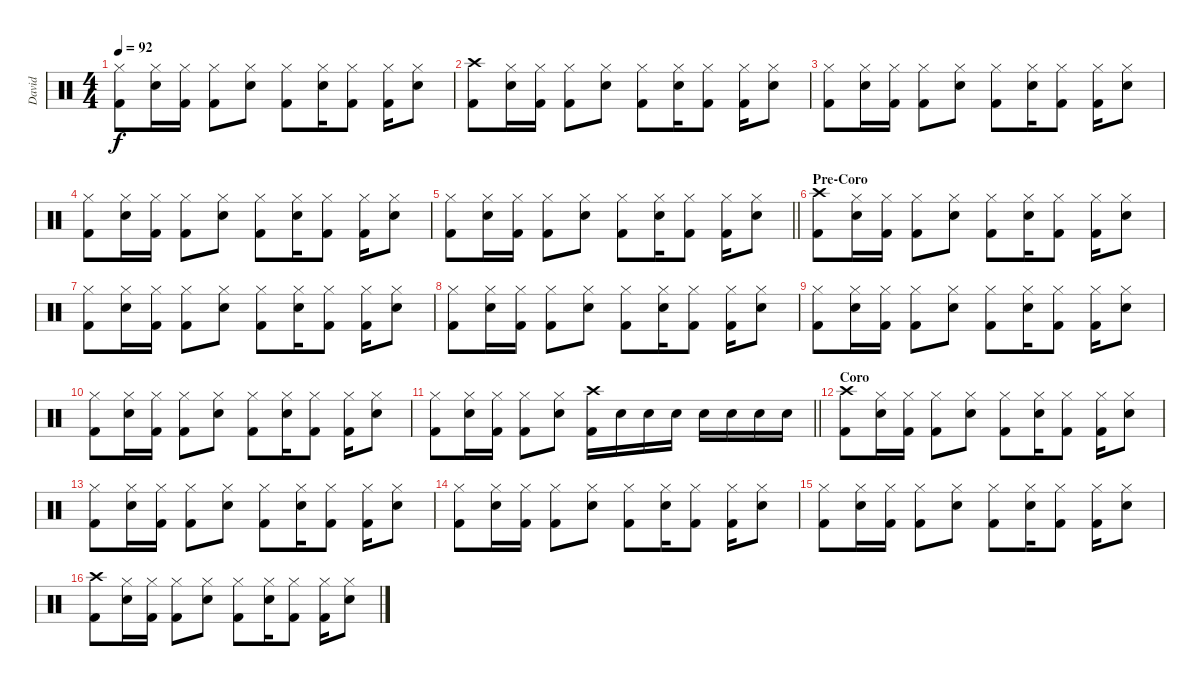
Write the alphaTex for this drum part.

\track ("David" "David") {instrument percussion}
\staff {score}
\articulation defaults
\ts (4 4)
\tempo 92
\clef neutral
\ks c
("Hi-Hat (closed)" "Kick (hit) 2").8{dy f} ("Hi-Hat (closed)" "Snare (hit) 2").16 ("Hi-Hat (closed)" "Kick (hit) 2").16 ("Hi-Hat (closed)" "Kick (hit) 2").8 ("Hi-Hat (closed)" "Snare (hit) 2").8 ("Hi-Hat (closed)" "Kick (hit) 2").8 ("Hi-Hat (closed)" "Snare (hit) 2").16 ("Hi-Hat (closed)" "Kick (hit) 2").8 ("Hi-Hat (closed)" "Kick (hit) 2").16 ("Hi-Hat (closed)" "Snare (hit) 2").8 |
("Crash high (hit)" "Kick (hit) 2").8 ("Hi-Hat (closed)" "Snare (hit) 2").16 ("Hi-Hat (closed)" "Kick (hit) 2").16 ("Hi-Hat (closed)" "Kick (hit) 2").8 ("Hi-Hat (closed)" "Snare (hit) 2").8 ("Hi-Hat (closed)" "Kick (hit) 2").8 ("Hi-Hat (closed)" "Snare (hit) 2").16 ("Hi-Hat (closed)" "Kick (hit) 2").8 ("Hi-Hat (closed)" "Kick (hit) 2").16 ("Hi-Hat (closed)" "Snare (hit) 2").8 |
("Hi-Hat (closed)" "Kick (hit) 2").8 ("Hi-Hat (closed)" "Snare (hit) 2").16 ("Hi-Hat (closed)" "Kick (hit) 2").16 ("Hi-Hat (closed)" "Kick (hit) 2").8 ("Hi-Hat (closed)" "Snare (hit) 2").8 ("Hi-Hat (closed)" "Kick (hit) 2").8 ("Hi-Hat (closed)" "Snare (hit) 2").16 ("Hi-Hat (closed)" "Kick (hit) 2").8 ("Hi-Hat (closed)" "Kick (hit) 2").16 ("Hi-Hat (closed)" "Snare (hit) 2").8 |
("Hi-Hat (closed)" "Kick (hit) 2").8 ("Hi-Hat (closed)" "Snare (hit) 2").16 ("Hi-Hat (closed)" "Kick (hit) 2").16 ("Hi-Hat (closed)" "Kick (hit) 2").8 ("Hi-Hat (closed)" "Snare (hit) 2").8 ("Hi-Hat (closed)" "Kick (hit) 2").8 ("Hi-Hat (closed)" "Snare (hit) 2").16 ("Hi-Hat (closed)" "Kick (hit) 2").8 ("Hi-Hat (closed)" "Kick (hit) 2").16 ("Hi-Hat (closed)" "Snare (hit) 2").8 |
\barLineRight lightlight
("Hi-Hat (closed)" "Kick (hit) 2").8 ("Hi-Hat (closed)" "Snare (hit) 2").16 ("Hi-Hat (closed)" "Kick (hit) 2").16 ("Hi-Hat (closed)" "Kick (hit) 2").8 ("Hi-Hat (closed)" "Snare (hit) 2").8 ("Hi-Hat (closed)" "Kick (hit) 2").8 ("Hi-Hat (closed)" "Snare (hit) 2").16 ("Hi-Hat (closed)" "Kick (hit) 2").8 ("Hi-Hat (closed)" "Kick (hit) 2").16 ("Hi-Hat (closed)" "Snare (hit) 2").8 |
\section ("" "Pre-Coro")
("Crash high (hit)" "Kick (hit) 2").8 ("Hi-Hat (closed)" "Snare (hit) 2").16 ("Hi-Hat (closed)" "Kick (hit) 2").16 ("Hi-Hat (closed)" "Kick (hit) 2").8 ("Hi-Hat (closed)" "Snare (hit) 2").8 ("Hi-Hat (closed)" "Kick (hit) 2").8 ("Hi-Hat (closed)" "Snare (hit) 2").16 ("Hi-Hat (closed)" "Kick (hit) 2").8 ("Hi-Hat (closed)" "Kick (hit) 2").16 ("Hi-Hat (closed)" "Snare (hit) 2").8 |
("Hi-Hat (closed)" "Kick (hit) 2").8 ("Hi-Hat (closed)" "Snare (hit) 2").16 ("Hi-Hat (closed)" "Kick (hit) 2").16 ("Hi-Hat (closed)" "Kick (hit) 2").8 ("Hi-Hat (closed)" "Snare (hit) 2").8 ("Hi-Hat (closed)" "Kick (hit) 2").8 ("Hi-Hat (closed)" "Snare (hit) 2").16 ("Hi-Hat (closed)" "Kick (hit) 2").8 ("Hi-Hat (closed)" "Kick (hit) 2").16 ("Hi-Hat (closed)" "Snare (hit) 2").8 |
("Hi-Hat (closed)" "Kick (hit) 2").8 ("Hi-Hat (closed)" "Snare (hit) 2").16 ("Hi-Hat (closed)" "Kick (hit) 2").16 ("Hi-Hat (closed)" "Kick (hit) 2").8 ("Hi-Hat (closed)" "Snare (hit) 2").8 ("Hi-Hat (closed)" "Kick (hit) 2").8 ("Hi-Hat (closed)" "Snare (hit) 2").16 ("Hi-Hat (closed)" "Kick (hit) 2").8 ("Hi-Hat (closed)" "Kick (hit) 2").16 ("Hi-Hat (closed)" "Snare (hit) 2").8 |
("Hi-Hat (closed)" "Kick (hit) 2").8 ("Hi-Hat (closed)" "Snare (hit) 2").16 ("Hi-Hat (closed)" "Kick (hit) 2").16 ("Hi-Hat (closed)" "Kick (hit) 2").8 ("Hi-Hat (closed)" "Snare (hit) 2").8 ("Hi-Hat (closed)" "Kick (hit) 2").8 ("Hi-Hat (closed)" "Snare (hit) 2").16 ("Hi-Hat (closed)" "Kick (hit) 2").8 ("Hi-Hat (closed)" "Kick (hit) 2").16 ("Hi-Hat (closed)" "Snare (hit) 2").8 |
("Hi-Hat (closed)" "Kick (hit) 2").8 ("Hi-Hat (closed)" "Snare (hit) 2").16 ("Hi-Hat (closed)" "Kick (hit) 2").16 ("Hi-Hat (closed)" "Kick (hit) 2").8 ("Hi-Hat (closed)" "Snare (hit) 2").8 ("Hi-Hat (closed)" "Kick (hit) 2").8 ("Hi-Hat (closed)" "Snare (hit) 2").16 ("Hi-Hat (closed)" "Kick (hit) 2").8 ("Hi-Hat (closed)" "Kick (hit) 2").16 ("Hi-Hat (closed)" "Snare (hit) 2").8 |
\barLineRight lightlight
("Hi-Hat (closed)" "Kick (hit) 2").8 ("Hi-Hat (closed)" "Snare (hit) 2").16 ("Hi-Hat (closed)" "Kick (hit) 2").16 ("Hi-Hat (closed)" "Kick (hit) 2").8 ("Hi-Hat (closed)" "Snare (hit) 2").8 ("Crash high (hit)" "Kick (hit) 2").16 "Snare (hit) 2".16 "Snare (hit) 2".16 "Snare (hit) 2".16 "Snare (hit) 2".16 "Snare (hit) 2".16 "Snare (hit) 2".16 "Snare (hit) 2".16 |
\section ("" "Coro")
("Crash high (hit)" "Kick (hit) 2").8 ("Hi-Hat (closed)" "Snare (hit) 2").16 ("Hi-Hat (closed)" "Kick (hit) 2").16 ("Hi-Hat (closed)" "Kick (hit) 2").8 ("Hi-Hat (closed)" "Snare (hit) 2").8 ("Hi-Hat (closed)" "Kick (hit) 2").8 ("Hi-Hat (closed)" "Snare (hit) 2").16 ("Hi-Hat (closed)" "Kick (hit) 2").8 ("Hi-Hat (closed)" "Kick (hit) 2").16 ("Hi-Hat (closed)" "Snare (hit) 2").8 |
("Hi-Hat (closed)" "Kick (hit) 2").8 ("Hi-Hat (closed)" "Snare (hit) 2").16 ("Hi-Hat (closed)" "Kick (hit) 2").16 ("Hi-Hat (closed)" "Kick (hit) 2").8 ("Hi-Hat (closed)" "Snare (hit) 2").8 ("Hi-Hat (closed)" "Kick (hit) 2").8 ("Hi-Hat (closed)" "Snare (hit) 2").16 ("Hi-Hat (closed)" "Kick (hit) 2").8 ("Hi-Hat (closed)" "Kick (hit) 2").16 ("Hi-Hat (closed)" "Snare (hit) 2").8 |
("Hi-Hat (closed)" "Kick (hit) 2").8 ("Hi-Hat (closed)" "Snare (hit) 2").16 ("Hi-Hat (closed)" "Kick (hit) 2").16 ("Hi-Hat (closed)" "Kick (hit) 2").8 ("Hi-Hat (closed)" "Snare (hit) 2").8 ("Hi-Hat (closed)" "Kick (hit) 2").8 ("Hi-Hat (closed)" "Snare (hit) 2").16 ("Hi-Hat (closed)" "Kick (hit) 2").8 ("Hi-Hat (closed)" "Kick (hit) 2").16 ("Hi-Hat (closed)" "Snare (hit) 2").8 |
("Hi-Hat (closed)" "Kick (hit) 2").8 ("Hi-Hat (closed)" "Snare (hit) 2").16 ("Hi-Hat (closed)" "Kick (hit) 2").16 ("Hi-Hat (closed)" "Kick (hit) 2").8 ("Hi-Hat (closed)" "Snare (hit) 2").8 ("Hi-Hat (closed)" "Kick (hit) 2").8 ("Hi-Hat (closed)" "Snare (hit) 2").16 ("Hi-Hat (closed)" "Kick (hit) 2").8 ("Hi-Hat (closed)" "Kick (hit) 2").16 ("Hi-Hat (closed)" "Snare (hit) 2").8 |
("Crash high (hit)" "Kick (hit) 2").8 ("Hi-Hat (closed)" "Snare (hit) 2").16 ("Hi-Hat (closed)" "Kick (hit) 2").16 ("Hi-Hat (closed)" "Kick (hit) 2").8 ("Hi-Hat (closed)" "Snare (hit) 2").8 ("Hi-Hat (closed)" "Kick (hit) 2").8 ("Hi-Hat (closed)" "Snare (hit) 2").16 ("Hi-Hat (closed)" "Kick (hit) 2").8 ("Hi-Hat (closed)" "Kick (hit) 2").16 ("Hi-Hat (closed)" "Snare (hit) 2").8
